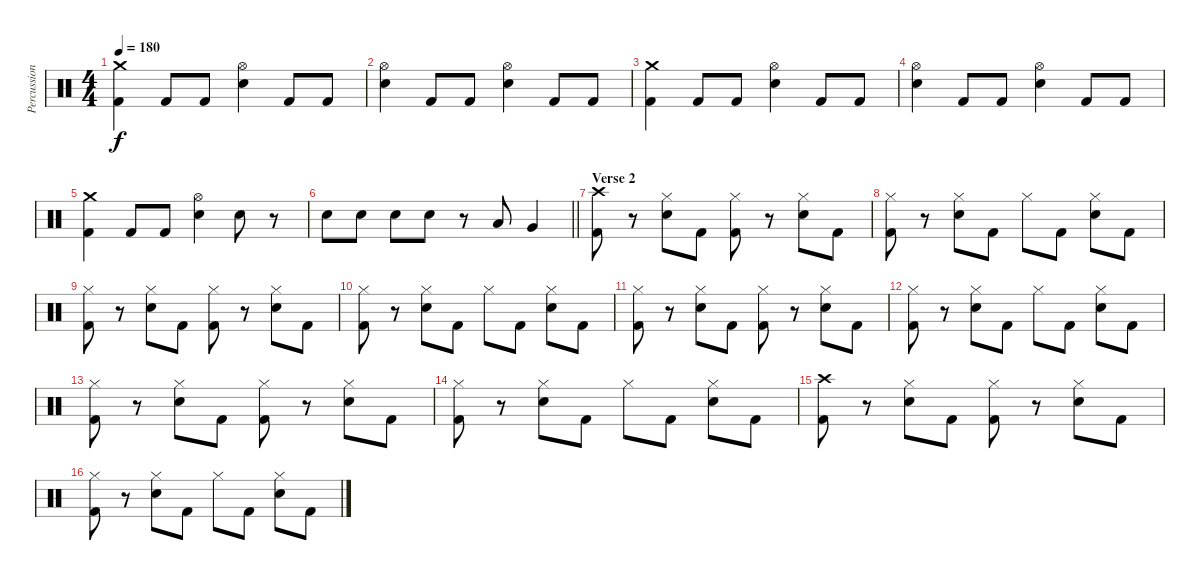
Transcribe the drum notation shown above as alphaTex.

\track ("Percussion" "Percussion") {instrument percussion}
\staff {score}
\articulation defaults
\ts (4 4)
\tempo 180
\clef neutral
\ks c
("Crash medium (hit)" "Kick (hit) 2").4{dy f} "Kick (hit) 2".8 "Kick (hit) 2".8 ("Hi-Hat (open)" "Snare (hit) 2").4 "Kick (hit) 2".8 "Kick (hit) 2".8 |
("Hi-Hat (open)" "Snare (hit) 2").4 "Kick (hit) 2".8 "Kick (hit) 2".8 ("Hi-Hat (open)" "Snare (hit) 2").4 "Kick (hit) 2".8 "Kick (hit) 2".8 |
("Crash medium (hit)" "Kick (hit) 2").4 "Kick (hit) 2".8 "Kick (hit) 2".8 ("Hi-Hat (open)" "Snare (hit) 2").4 "Kick (hit) 2".8 "Kick (hit) 2".8 |
("Hi-Hat (open)" "Snare (hit) 2").4 "Kick (hit) 2".8 "Kick (hit) 2".8 ("Hi-Hat (open)" "Snare (hit) 2").4 "Kick (hit) 2".8 "Kick (hit) 2".8 |
("Crash medium (hit)" "Kick (hit) 2").4 "Kick (hit) 2".8 "Kick (hit) 2".8 ("Hi-Hat (open)" "Snare (hit) 2").4 "Snare (hit) 2".8 r.8 |
\barLineRight lightlight "Snare (hit) 2".8 "Snare (hit) 2".8 "Snare (hit) 2".8 "Snare (hit) 2".8
r.8 "Low Tom (hit)".8 "Very Low Tom (hit)".4 |
\section ("" "Verse 2")
("Crash high (hit)" "Kick (hit) 2").8 r.8 ("Hi-Hat (closed)" "Snare (hit) 2").8 "Kick (hit) 2".8 ("Hi-Hat (closed)" "Kick (hit) 2").8 r.8 ("Hi-Hat (closed)" "Snare (hit) 2").8 "Kick (hit) 2".8 |
("Hi-Hat (closed)" "Kick (hit) 2").8 r.8 ("Hi-Hat (closed)" "Snare (hit) 2").8 "Kick (hit) 2".8 "Hi-Hat (closed)".8 "Kick (hit) 2".8 ("Hi-Hat (closed)" "Snare (hit) 2").8 "Kick (hit) 2".8 |
("Hi-Hat (closed)" "Kick (hit) 2").8 r.8 ("Hi-Hat (closed)" "Snare (hit) 2").8 "Kick (hit) 2".8 ("Hi-Hat (closed)" "Kick (hit) 2").8 r.8 ("Hi-Hat (closed)" "Snare (hit) 2").8 "Kick (hit) 2".8 |
("Hi-Hat (closed)" "Kick (hit) 2").8 r.8 ("Hi-Hat (closed)" "Snare (hit) 2").8 "Kick (hit) 2".8 "Hi-Hat (closed)".8 "Kick (hit) 2".8 ("Hi-Hat (closed)" "Snare (hit) 2").8 "Kick (hit) 2".8 |
("Hi-Hat (closed)" "Kick (hit) 2").8 r.8 ("Hi-Hat (closed)" "Snare (hit) 2").8 "Kick (hit) 2".8 ("Hi-Hat (closed)" "Kick (hit) 2").8 r.8 ("Hi-Hat (closed)" "Snare (hit) 2").8 "Kick (hit) 2".8 |
("Hi-Hat (closed)" "Kick (hit) 2").8 r.8 ("Hi-Hat (closed)" "Snare (hit) 2").8 "Kick (hit) 2".8 "Hi-Hat (closed)".8 "Kick (hit) 2".8 ("Hi-Hat (closed)" "Snare (hit) 2").8 "Kick (hit) 2".8 |
("Hi-Hat (closed)" "Kick (hit) 2").8 r.8 ("Hi-Hat (closed)" "Snare (hit) 2").8 "Kick (hit) 2".8 ("Hi-Hat (closed)" "Kick (hit) 2").8 r.8 ("Hi-Hat (closed)" "Snare (hit) 2").8 "Kick (hit) 2".8 |
("Hi-Hat (closed)" "Kick (hit) 2").8 r.8 ("Hi-Hat (closed)" "Snare (hit) 2").8 "Kick (hit) 2".8 "Hi-Hat (closed)".8 "Kick (hit) 2".8 ("Hi-Hat (closed)" "Snare (hit) 2").8 "Kick (hit) 2".8 |
("Crash high (hit)" "Kick (hit) 2").8 r.8 ("Hi-Hat (closed)" "Snare (hit) 2").8 "Kick (hit) 2".8 ("Hi-Hat (closed)" "Kick (hit) 2").8 r.8 ("Hi-Hat (closed)" "Snare (hit) 2").8 "Kick (hit) 2".8 |
("Hi-Hat (closed)" "Kick (hit) 2").8 r.8 ("Hi-Hat (closed)" "Snare (hit) 2").8 "Kick (hit) 2".8 "Hi-Hat (closed)".8 "Kick (hit) 2".8 ("Hi-Hat (closed)" "Snare (hit) 2").8 "Kick (hit) 2".8
